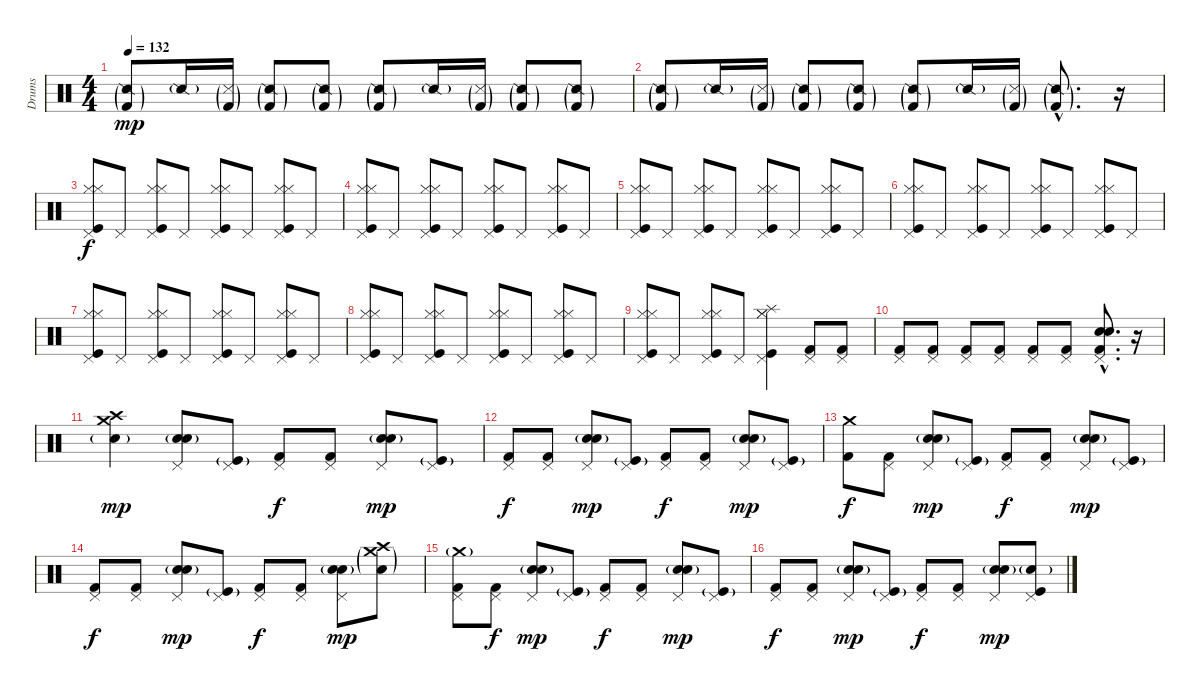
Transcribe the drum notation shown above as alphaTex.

\track ("Drums" "Drums") {instrument percussion}
\staff {score}
\articulation defaults
\ts (4 4)
\tempo 132
\clef neutral
\ks c
("Kick (hit) 2"{g} "Snare (side stick) 2"{g}).8{dy mp} "Snare (side stick) 2"{g}.16 ("Kick (hit) 2"{g} "Snare (side stick) 3"{g}).16 ("Kick (hit) 2"{g} "Snare (side stick) 2"{g}).8 ("Kick (hit) 2"{g} "Snare (side stick) 2"{g}).8 ("Kick (hit) 2"{g} "Snare (side stick) 2"{g}).8 "Snare (side stick) 2"{g}.16 ("Kick (hit) 2"{g} "Snare (side stick) 3"{g}).16 ("Kick (hit) 2"{g} "Snare (side stick) 2"{g}).8 ("Kick (hit) 2"{g} "Snare (side stick) 2"{g}).8 |
("Kick (hit) 2"{g} "Snare (side stick) 2"{g}).8 "Snare (side stick) 2"{g}.16 ("Kick (hit) 2"{g} "Snare (side stick) 3"{g}).16 ("Kick (hit) 2"{g} "Snare (side stick) 2"{g}).8 ("Kick (hit) 2"{g} "Snare (side stick) 2"{g}).8 ("Kick (hit) 2"{g} "Snare (side stick) 2"{g}).8 "Snare (side stick) 2"{g}.16 ("Kick (hit) 2"{g} "Snare (side stick) 3"{g}).16 ("Kick (hit) 2"{g hac} "Snare (side stick) 2"{g hac}).8{d} r.16 |
("Pedal Hi-Hat (hit)" "Hi-Hat (closed)" "Hi-Hat (closed)" "Kick (hit)").8{dy f} "Pedal Hi-Hat (hit)".8 ("Pedal Hi-Hat (hit)" "Hi-Hat (closed)" "Hi-Hat (closed)" "Kick (hit)").8 "Pedal Hi-Hat (hit)".8 ("Pedal Hi-Hat (hit)" "Hi-Hat (closed)" "Hi-Hat (closed)" "Kick (hit)").8 "Pedal Hi-Hat (hit)".8 ("Pedal Hi-Hat (hit)" "Hi-Hat (closed)" "Hi-Hat (closed)" "Kick (hit)").8 "Pedal Hi-Hat (hit)".8 |
("Pedal Hi-Hat (hit)" "Hi-Hat (closed)" "Hi-Hat (closed)" "Kick (hit)").8 "Pedal Hi-Hat (hit)".8 ("Pedal Hi-Hat (hit)" "Hi-Hat (closed)" "Hi-Hat (closed)" "Kick (hit)").8 "Pedal Hi-Hat (hit)".8 ("Pedal Hi-Hat (hit)" "Hi-Hat (closed)" "Hi-Hat (closed)" "Kick (hit)").8 "Pedal Hi-Hat (hit)".8 ("Pedal Hi-Hat (hit)" "Hi-Hat (closed)" "Hi-Hat (closed)" "Kick (hit)").8 "Pedal Hi-Hat (hit)".8 |
("Pedal Hi-Hat (hit)" "Hi-Hat (closed)" "Hi-Hat (closed)" "Kick (hit)").8 "Pedal Hi-Hat (hit)".8 ("Pedal Hi-Hat (hit)" "Hi-Hat (closed)" "Hi-Hat (closed)" "Kick (hit)").8 "Pedal Hi-Hat (hit)".8 ("Pedal Hi-Hat (hit)" "Hi-Hat (closed)" "Hi-Hat (closed)" "Kick (hit)").8 "Pedal Hi-Hat (hit)".8 ("Pedal Hi-Hat (hit)" "Hi-Hat (closed)" "Hi-Hat (closed)" "Kick (hit)").8 "Pedal Hi-Hat (hit)".8 |
("Pedal Hi-Hat (hit)" "Hi-Hat (closed)" "Hi-Hat (closed)" "Kick (hit)").8 "Pedal Hi-Hat (hit)".8 ("Pedal Hi-Hat (hit)" "Hi-Hat (closed)" "Hi-Hat (closed)" "Kick (hit)").8 "Pedal Hi-Hat (hit)".8 ("Pedal Hi-Hat (hit)" "Hi-Hat (closed)" "Hi-Hat (closed)" "Kick (hit)").8 "Pedal Hi-Hat (hit)".8 ("Pedal Hi-Hat (hit)" "Hi-Hat (closed)" "Hi-Hat (closed)" "Kick (hit)").8 "Pedal Hi-Hat (hit)".8 |
("Pedal Hi-Hat (hit)" "Hi-Hat (closed)" "Hi-Hat (closed)" "Kick (hit)").8 "Pedal Hi-Hat (hit)".8 ("Pedal Hi-Hat (hit)" "Hi-Hat (closed)" "Hi-Hat (closed)" "Kick (hit)").8 "Pedal Hi-Hat (hit)".8 ("Pedal Hi-Hat (hit)" "Hi-Hat (closed)" "Hi-Hat (closed)" "Kick (hit)").8 "Pedal Hi-Hat (hit)".8 ("Pedal Hi-Hat (hit)" "Hi-Hat (closed)" "Hi-Hat (closed)" "Kick (hit)").8 "Pedal Hi-Hat (hit)".8 |
("Pedal Hi-Hat (hit)" "Hi-Hat (closed)" "Hi-Hat (closed)" "Kick (hit)").8 "Pedal Hi-Hat (hit)".8 ("Pedal Hi-Hat (hit)" "Hi-Hat (closed)" "Hi-Hat (closed)" "Kick (hit)").8 "Pedal Hi-Hat (hit)".8 ("Pedal Hi-Hat (hit)" "Hi-Hat (closed)" "Hi-Hat (closed)" "Kick (hit)").8 "Pedal Hi-Hat (hit)".8 ("Pedal Hi-Hat (hit)" "Hi-Hat (closed)" "Hi-Hat (closed)" "Kick (hit)").8 "Pedal Hi-Hat (hit)".8 |
("Pedal Hi-Hat (hit)" "Hi-Hat (closed)" "Hi-Hat (closed)" "Kick (hit)").8 "Pedal Hi-Hat (hit)".8 ("Pedal Hi-Hat (hit)" "Hi-Hat (closed)" "Hi-Hat (closed)" "Kick (hit)").8 "Pedal Hi-Hat (hit)".8 ("Pedal Hi-Hat (hit)" "Hi-Hat (closed)" "Hi-Hat (closed)" "Kick (hit)" "Splash (hit)").4 ("Pedal Hi-Hat (hit)" "Kick (hit) 2").8 ("Pedal Hi-Hat (hit)" "Kick (hit) 2").8 |
("Pedal Hi-Hat (hit)" "Kick (hit) 2").8 ("Pedal Hi-Hat (hit)" "Kick (hit) 2").8 ("Pedal Hi-Hat (hit)" "Kick (hit) 2").8 ("Pedal Hi-Hat (hit)" "Kick (hit) 2").8 ("Pedal Hi-Hat (hit)" "Kick (hit) 2").8 ("Pedal Hi-Hat (hit)" "Kick (hit) 2").8 ("Pedal Hi-Hat (hit)"{hac} "Electric Snare (hit)"{hac} "Electric Snare (hit)"{hac} "Kick (hit) 2"{hac}).8{d} r.16 |
("Crash medium (hit)" "Crash high (hit)" "Electric Snare (hit)"{g}).4{dy mp} ("Pedal Hi-Hat (hit)" "Electric Snare (hit)" "Snare (hit) 2"{g}).8 ("Pedal Hi-Hat (hit)" "Kick (hit)"{g}).8 ("Pedal Hi-Hat (hit)" "Kick (hit) 2").8{dy f} ("Pedal Hi-Hat (hit)" "Kick (hit) 2").8 ("Pedal Hi-Hat (hit)" "Electric Snare (hit)" "Snare (hit) 2"{g}).8{dy mp} ("Pedal Hi-Hat (hit)" "Kick (hit)"{g}).8 |
("Pedal Hi-Hat (hit)" "Kick (hit) 2").8{dy f} ("Pedal Hi-Hat (hit)" "Kick (hit) 2").8 ("Pedal Hi-Hat (hit)" "Electric Snare (hit)" "Snare (hit) 2"{g}).8{dy mp} ("Pedal Hi-Hat (hit)" "Kick (hit)"{g}).8 ("Pedal Hi-Hat (hit)" "Kick (hit) 2").8{dy f} ("Pedal Hi-Hat (hit)" "Kick (hit) 2").8 ("Pedal Hi-Hat (hit)" "Electric Snare (hit)" "Snare (hit) 2"{g}).8{dy mp} ("Pedal Hi-Hat (hit)" "Kick (hit)"{g}).8 |
("Crash medium (hit)" "Kick (hit) 2").8{dy f} ("Pedal Hi-Hat (hit)" "Kick (hit) 2").8 ("Pedal Hi-Hat (hit)" "Electric Snare (hit)" "Snare (hit) 2"{g}).8{dy mp} ("Pedal Hi-Hat (hit)" "Kick (hit)"{g}).8 ("Pedal Hi-Hat (hit)" "Kick (hit) 2").8{dy f} ("Pedal Hi-Hat (hit)" "Kick (hit) 2").8 ("Pedal Hi-Hat (hit)" "Electric Snare (hit)" "Snare (hit) 2"{g}).8{dy mp} ("Pedal Hi-Hat (hit)" "Kick (hit)"{g}).8 |
("Pedal Hi-Hat (hit)" "Kick (hit) 2").8{dy f} ("Pedal Hi-Hat (hit)" "Kick (hit) 2").8 ("Pedal Hi-Hat (hit)" "Electric Snare (hit)" "Snare (hit) 2"{g}).8{dy mp} ("Pedal Hi-Hat (hit)" "Kick (hit)"{g}).8 ("Pedal Hi-Hat (hit)" "Kick (hit) 2").8{dy f} ("Pedal Hi-Hat (hit)" "Kick (hit) 2").8 ("Pedal Hi-Hat (hit)" "Electric Snare (hit)" "Snare (hit) 2"{g}).8{dy mp} ("Crash high (hit)" "Crash medium (hit)"{g} "Electric Snare (hit)"{g}).8 |
("Pedal Hi-Hat (hit)" "Kick (hit) 2" "Crash medium (hit)"{g}).8 ("Pedal Hi-Hat (hit)" "Kick (hit) 2").8{dy f} ("Pedal Hi-Hat (hit)" "Electric Snare (hit)" "Snare (hit) 2"{g}).8{dy mp} ("Pedal Hi-Hat (hit)" "Kick (hit)"{g}).8 ("Pedal Hi-Hat (hit)" "Kick (hit) 2").8{dy f} ("Pedal Hi-Hat (hit)" "Kick (hit) 2").8 ("Pedal Hi-Hat (hit)" "Electric Snare (hit)" "Snare (hit) 2"{g}).8{dy mp} ("Pedal Hi-Hat (hit)" "Kick (hit)"{g}).8 |
("Pedal Hi-Hat (hit)" "Kick (hit) 2").8{dy f} ("Pedal Hi-Hat (hit)" "Kick (hit) 2").8 ("Pedal Hi-Hat (hit)" "Electric Snare (hit)" "Snare (hit) 2"{g}).8{dy mp} ("Pedal Hi-Hat (hit)" "Kick (hit)"{g}).8 ("Pedal Hi-Hat (hit)" "Kick (hit) 2").8{dy f} ("Pedal Hi-Hat (hit)" "Kick (hit) 2").8 ("Pedal Hi-Hat (hit)" "Electric Snare (hit)" "Snare (hit) 2"{g}).8{dy mp} ("Pedal Hi-Hat (hit)" "Kick (hit)" "Electric Snare (hit)"{g}).8
